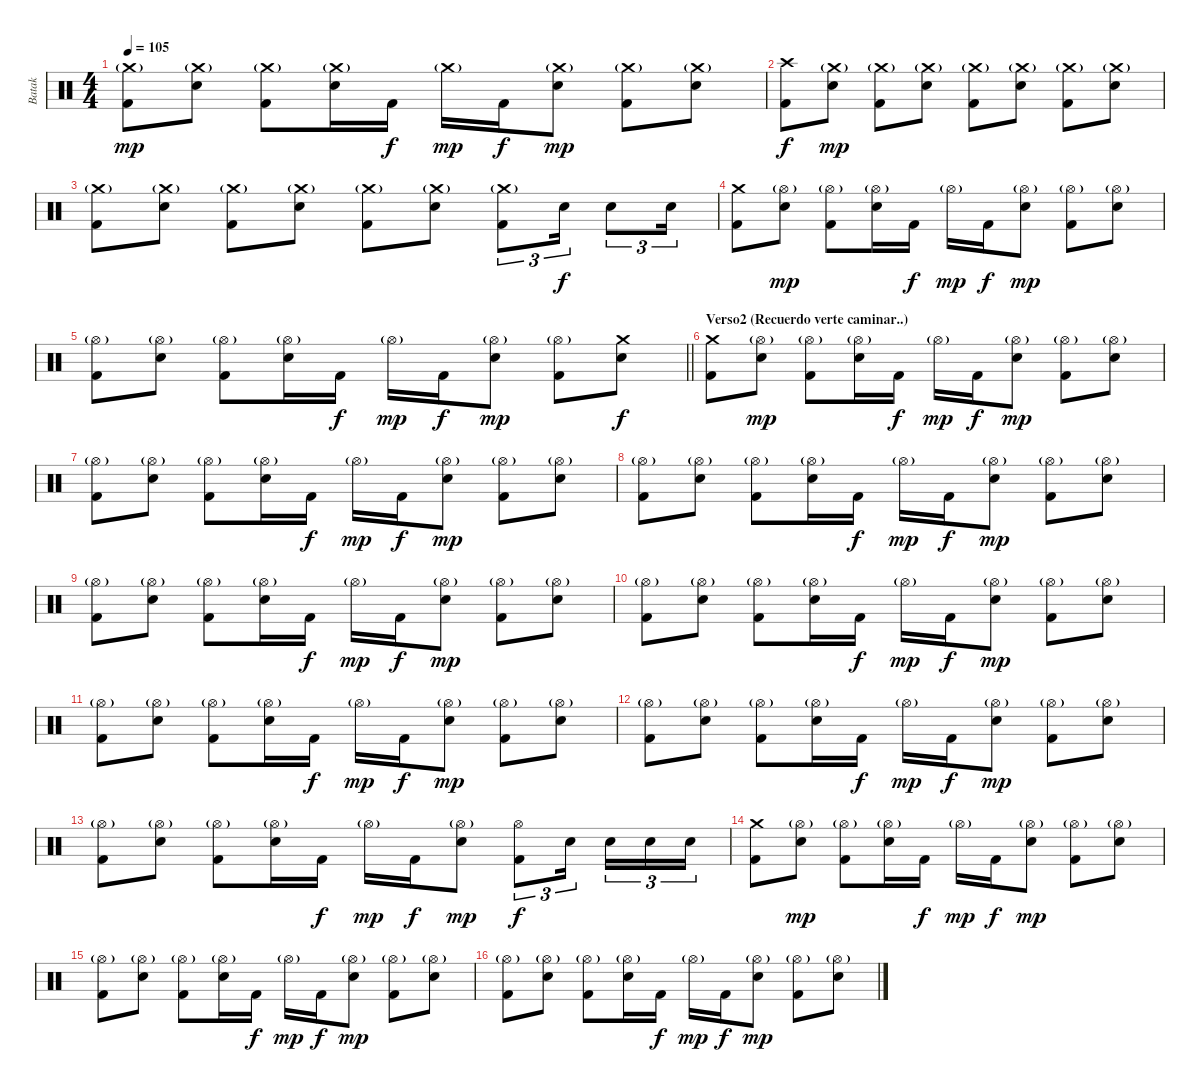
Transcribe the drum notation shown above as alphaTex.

\track ("Batak" "Batak") {instrument percussion bank 7}
\staff {score}
\articulation defaults
\ts (4 4)
\tempo 105
\clef neutral
\ks c
("Crash medium (hit)"{g} "Kick (hit) 2").8{dy mp} ("Crash medium (hit)"{g} "Electric Snare (hit)").8 ("Crash medium (hit)"{g} "Kick (hit) 2").8 ("Crash medium (hit)"{g} "Electric Snare (hit)").16 "Kick (hit) 2".16{dy f} "Crash medium (hit)"{g}.16{dy mp} "Kick (hit) 2".16{dy f} ("Crash medium (hit)"{g} "Electric Snare (hit)").8{dy mp} ("Crash medium (hit)"{g} "Kick (hit) 2").8 ("Crash medium (hit)"{g} "Electric Snare (hit)").8 |
("Crash high (hit)" "Kick (hit) 2").8{dy f} ("Crash medium (hit)"{g} "Electric Snare (hit)").8{dy mp} ("Crash medium (hit)"{g} "Kick (hit) 2").8 ("Crash medium (hit)"{g} "Electric Snare (hit)").8 ("Crash medium (hit)"{g} "Kick (hit) 2").8 ("Crash medium (hit)"{g} "Electric Snare (hit)").8 ("Crash medium (hit)"{g} "Kick (hit) 2").8 ("Crash medium (hit)"{g} "Electric Snare (hit)").8 |
("Crash medium (hit)"{g} "Kick (hit) 2").8 ("Crash medium (hit)"{g} "Electric Snare (hit)").8 ("Crash medium (hit)"{g} "Kick (hit) 2").8 ("Crash medium (hit)"{g} "Electric Snare (hit)").8 ("Crash medium (hit)"{g} "Kick (hit) 2").8 ("Crash medium (hit)"{g} "Electric Snare (hit)").8 ("Crash medium (hit)"{g} "Kick (hit) 2").8{tu (3 2)} "Electric Snare (hit)".16{tu (3 2) dy f} "Electric Snare (hit)".8{tu (3 2)} "Electric Snare (hit)".16{tu (3 2)} |
("Crash medium (hit)" "Kick (hit) 2").8 ("Hi-Hat (open)"{g} "Electric Snare (hit)").8{dy mp} ("Hi-Hat (open)"{g} "Kick (hit) 2").8 ("Hi-Hat (open)"{g} "Electric Snare (hit)").16 "Kick (hit) 2".16{dy f} "Hi-Hat (open)"{g}.16{dy mp} "Kick (hit) 2".16{dy f} ("Hi-Hat (open)"{g} "Electric Snare (hit)").8{dy mp} ("Hi-Hat (open)"{g} "Kick (hit) 2").8 ("Hi-Hat (open)"{g} "Electric Snare (hit)").8 |
\barLineRight lightlight
("Hi-Hat (open)"{g} "Kick (hit) 2").8 ("Hi-Hat (open)"{g} "Electric Snare (hit)").8 ("Hi-Hat (open)"{g} "Kick (hit) 2").8 ("Hi-Hat (open)"{g} "Electric Snare (hit)").16 "Kick (hit) 2".16{dy f} "Hi-Hat (open)"{g}.16{dy mp} "Kick (hit) 2".16{dy f} ("Hi-Hat (open)"{g} "Electric Snare (hit)").8{dy mp} ("Hi-Hat (open)"{g} "Kick (hit) 2").8 ("Crash medium (hit)" "Electric Snare (hit)").8{dy f} |
\section ("" "Verso2 (Recuerdo verte caminar..)")
("Crash medium (hit)" "Kick (hit) 2").8 ("Hi-Hat (open)"{g} "Electric Snare (hit)").8{dy mp} ("Hi-Hat (open)"{g} "Kick (hit) 2").8 ("Hi-Hat (open)"{g} "Electric Snare (hit)").16 "Kick (hit) 2".16{dy f} "Hi-Hat (open)"{g}.16{dy mp} "Kick (hit) 2".16{dy f} ("Hi-Hat (open)"{g} "Electric Snare (hit)").8{dy mp} ("Hi-Hat (open)"{g} "Kick (hit) 2").8 ("Hi-Hat (open)"{g} "Electric Snare (hit)").8 |
("Hi-Hat (open)"{g} "Kick (hit) 2").8 ("Hi-Hat (open)"{g} "Electric Snare (hit)").8 ("Hi-Hat (open)"{g} "Kick (hit) 2").8 ("Hi-Hat (open)"{g} "Electric Snare (hit)").16 "Kick (hit) 2".16{dy f} "Hi-Hat (open)"{g}.16{dy mp} "Kick (hit) 2".16{dy f} ("Hi-Hat (open)"{g} "Electric Snare (hit)").8{dy mp} ("Hi-Hat (open)"{g} "Kick (hit) 2").8 ("Hi-Hat (open)"{g} "Electric Snare (hit)").8 |
("Hi-Hat (open)"{g} "Kick (hit) 2").8 ("Hi-Hat (open)"{g} "Electric Snare (hit)").8 ("Hi-Hat (open)"{g} "Kick (hit) 2").8 ("Hi-Hat (open)"{g} "Electric Snare (hit)").16 "Kick (hit) 2".16{dy f} "Hi-Hat (open)"{g}.16{dy mp} "Kick (hit) 2".16{dy f} ("Hi-Hat (open)"{g} "Electric Snare (hit)").8{dy mp} ("Hi-Hat (open)"{g} "Kick (hit) 2").8 ("Hi-Hat (open)"{g} "Electric Snare (hit)").8 |
("Hi-Hat (open)"{g} "Kick (hit) 2").8 ("Hi-Hat (open)"{g} "Electric Snare (hit)").8 ("Hi-Hat (open)"{g} "Kick (hit) 2").8 ("Hi-Hat (open)"{g} "Electric Snare (hit)").16 "Kick (hit) 2".16{dy f} "Hi-Hat (open)"{g}.16{dy mp} "Kick (hit) 2".16{dy f} ("Hi-Hat (open)"{g} "Electric Snare (hit)").8{dy mp} ("Hi-Hat (open)"{g} "Kick (hit) 2").8 ("Hi-Hat (open)"{g} "Electric Snare (hit)").8 |
("Hi-Hat (open)"{g} "Kick (hit) 2").8 ("Hi-Hat (open)"{g} "Electric Snare (hit)").8 ("Hi-Hat (open)"{g} "Kick (hit) 2").8 ("Hi-Hat (open)"{g} "Electric Snare (hit)").16 "Kick (hit) 2".16{dy f} "Hi-Hat (open)"{g}.16{dy mp} "Kick (hit) 2".16{dy f} ("Hi-Hat (open)"{g} "Electric Snare (hit)").8{dy mp} ("Hi-Hat (open)"{g} "Kick (hit) 2").8 ("Hi-Hat (open)"{g} "Electric Snare (hit)").8 |
("Hi-Hat (open)"{g} "Kick (hit) 2").8 ("Hi-Hat (open)"{g} "Electric Snare (hit)").8 ("Hi-Hat (open)"{g} "Kick (hit) 2").8 ("Hi-Hat (open)"{g} "Electric Snare (hit)").16 "Kick (hit) 2".16{dy f} "Hi-Hat (open)"{g}.16{dy mp} "Kick (hit) 2".16{dy f} ("Hi-Hat (open)"{g} "Electric Snare (hit)").8{dy mp} ("Hi-Hat (open)"{g} "Kick (hit) 2").8 ("Hi-Hat (open)"{g} "Electric Snare (hit)").8 |
("Hi-Hat (open)"{g} "Kick (hit) 2").8 ("Hi-Hat (open)"{g} "Electric Snare (hit)").8 ("Hi-Hat (open)"{g} "Kick (hit) 2").8 ("Hi-Hat (open)"{g} "Electric Snare (hit)").16 "Kick (hit) 2".16{dy f} "Hi-Hat (open)"{g}.16{dy mp} "Kick (hit) 2".16{dy f} ("Hi-Hat (open)"{g} "Electric Snare (hit)").8{dy mp} ("Hi-Hat (open)"{g} "Kick (hit) 2").8 ("Hi-Hat (open)"{g} "Electric Snare (hit)").8 |
("Hi-Hat (open)"{g} "Kick (hit) 2").8 ("Hi-Hat (open)"{g} "Electric Snare (hit)").8 ("Hi-Hat (open)"{g} "Kick (hit) 2").8 ("Hi-Hat (open)"{g} "Electric Snare (hit)").16 "Kick (hit) 2".16{dy f} "Hi-Hat (open)"{g}.16{dy mp} "Kick (hit) 2".16{dy f} ("Hi-Hat (open)"{g} "Electric Snare (hit)").8{dy mp} ("Hi-Hat (open)" "Kick (hit) 2").8{tu (3 2) dy f} "Electric Snare (hit)".16{tu (3 2) beam splitsecondary} "Electric Snare (hit)".16{tu (3 2)} "Electric Snare (hit)".16{tu (3 2)} "Electric Snare (hit)".16{tu (3 2)} |
("Crash medium (hit)" "Kick (hit) 2").8 ("Hi-Hat (open)"{g} "Electric Snare (hit)").8{dy mp} ("Hi-Hat (open)"{g} "Kick (hit) 2").8 ("Hi-Hat (open)"{g} "Electric Snare (hit)").16 "Kick (hit) 2".16{dy f} "Hi-Hat (open)"{g}.16{dy mp} "Kick (hit) 2".16{dy f} ("Hi-Hat (open)"{g} "Electric Snare (hit)").8{dy mp} ("Hi-Hat (open)"{g} "Kick (hit) 2").8 ("Hi-Hat (open)"{g} "Electric Snare (hit)").8 |
("Hi-Hat (open)"{g} "Kick (hit) 2").8 ("Hi-Hat (open)"{g} "Electric Snare (hit)").8 ("Hi-Hat (open)"{g} "Kick (hit) 2").8 ("Hi-Hat (open)"{g} "Electric Snare (hit)").16 "Kick (hit) 2".16{dy f} "Hi-Hat (open)"{g}.16{dy mp} "Kick (hit) 2".16{dy f} ("Hi-Hat (open)"{g} "Electric Snare (hit)").8{dy mp} ("Hi-Hat (open)"{g} "Kick (hit) 2").8 ("Hi-Hat (open)"{g} "Electric Snare (hit)").8 |
("Hi-Hat (open)"{g} "Kick (hit) 2").8 ("Hi-Hat (open)"{g} "Electric Snare (hit)").8 ("Hi-Hat (open)"{g} "Kick (hit) 2").8 ("Hi-Hat (open)"{g} "Electric Snare (hit)").16 "Kick (hit) 2".16{dy f} "Hi-Hat (open)"{g}.16{dy mp} "Kick (hit) 2".16{dy f} ("Hi-Hat (open)"{g} "Electric Snare (hit)").8{dy mp} ("Hi-Hat (open)"{g} "Kick (hit) 2").8 ("Hi-Hat (open)"{g} "Electric Snare (hit)").8
